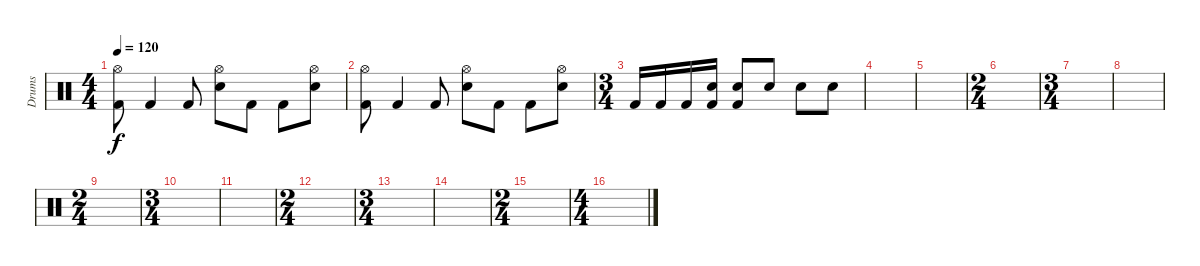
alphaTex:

\track ("Drums" "Drums") {instrument percussion}
\staff {score}
\articulation defaults
\ts (4 4)
\tempo 120
\clef neutral
\ks c
("Hi-Hat (open)" "Kick (hit) 2").8{dy f} "Kick (hit) 2".4 "Kick (hit) 2".8 ("Hi-Hat (open)" "Snare (hit) 2").8 "Kick (hit) 2".8 "Kick (hit) 2".8 ("Hi-Hat (open)" "Snare (hit) 2").8 |
("Hi-Hat (open)" "Kick (hit) 2").8 "Kick (hit) 2".4 "Kick (hit) 2".8 ("Hi-Hat (open)" "Snare (hit) 2").8 "Kick (hit) 2".8 "Kick (hit) 2".8 ("Hi-Hat (open)" "Snare (hit) 2").8 |
\ts (3 4)
"Kick (hit) 2".16 "Kick (hit) 2".16 "Kick (hit) 2".16 ("Snare (hit)" "Kick (hit) 2").16 ("Snare (hit)" "Kick (hit) 2").8 "Snare (hit) 2".8 "Snare (hit) 2".8 "Snare (hit) 2".8 |
|
|
\ts (2 4)
|
\ts (3 4)
|
|
\ts (2 4)
|
\ts (3 4)
|
|
\ts (2 4)
|
\ts (3 4)
|
|
\ts (2 4)
|
\ts (4 4)
